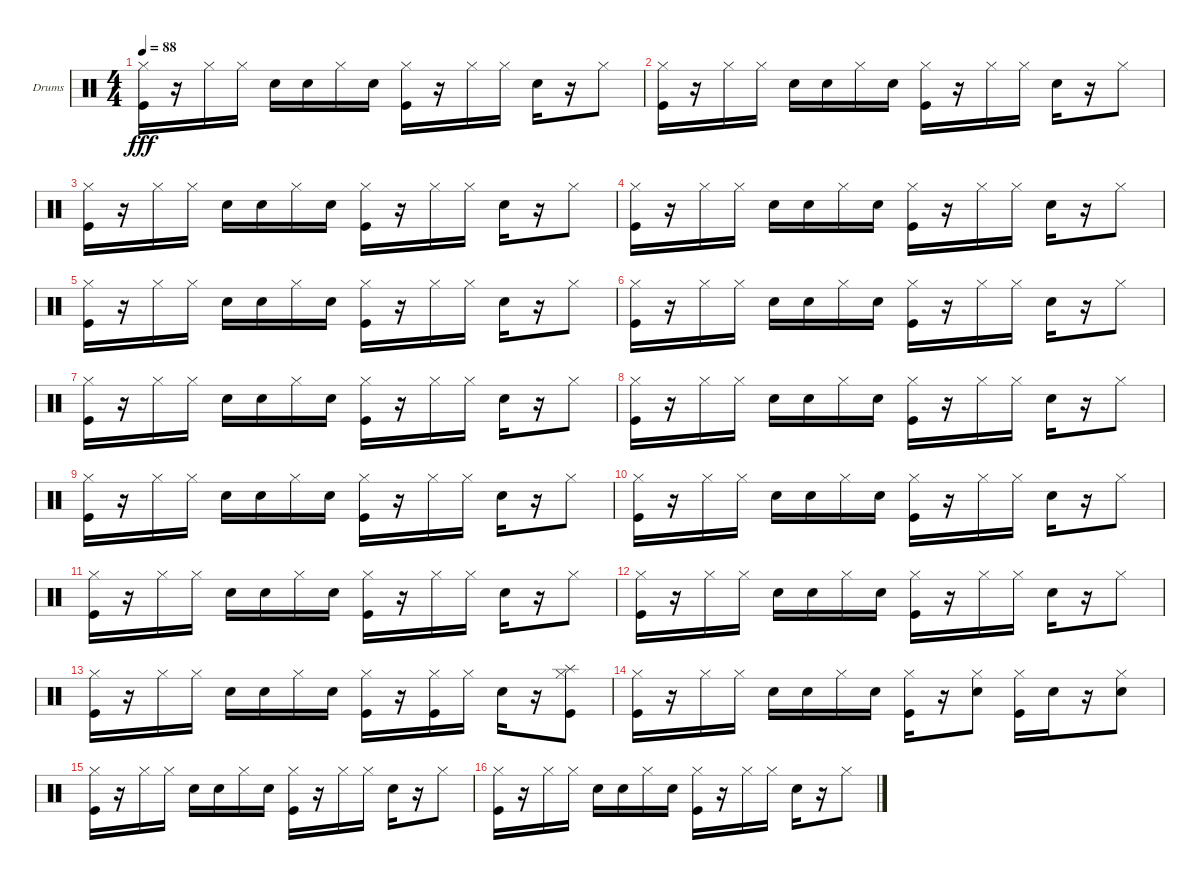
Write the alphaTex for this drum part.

\defaultSystemsLayout 4
\bracketExtendMode groupsimilarinstruments
\firstSystemTrackNameOrientation horizontal
\otherSystemsTrackNameOrientation horizontal
\track ("Drumkit" "Drums") {instrument percussion}
\staff {score}
\articulation defaults
\ts (4 4)
\tempo 88
\clef neutral
\ks c
("Hi-Hat (closed)" "Kick (hit)").16{dy fff} r.16 "Hi-Hat (closed)".16 "Hi-Hat (closed)".16 "Snare (hit) 2".16 "Snare (hit) 2".16 "Hi-Hat (closed)".16 "Snare (hit) 2".16 ("Hi-Hat (closed)" "Kick (hit)").16 r.16 "Hi-Hat (closed)".16 "Hi-Hat (closed)".16 "Snare (hit) 2".16 r.16 "Hi-Hat (closed)".8 |
("Hi-Hat (closed)" "Kick (hit)").16 r.16 "Hi-Hat (closed)".16 "Hi-Hat (closed)".16 "Snare (hit) 2".16 "Snare (hit) 2".16 "Hi-Hat (closed)".16 "Snare (hit) 2".16 ("Hi-Hat (closed)" "Kick (hit)").16 r.16 "Hi-Hat (closed)".16 "Hi-Hat (closed)".16 "Snare (hit) 2".16 r.16 "Hi-Hat (closed)".8 |
("Hi-Hat (closed)" "Kick (hit)").16 r.16 "Hi-Hat (closed)".16 "Hi-Hat (closed)".16 "Snare (hit) 2".16 "Snare (hit) 2".16 "Hi-Hat (closed)".16 "Snare (hit) 2".16 ("Hi-Hat (closed)" "Kick (hit)").16 r.16 "Hi-Hat (closed)".16 "Hi-Hat (closed)".16 "Snare (hit) 2".16 r.16 "Hi-Hat (closed)".8 |
("Hi-Hat (closed)" "Kick (hit)").16 r.16 "Hi-Hat (closed)".16 "Hi-Hat (closed)".16 "Snare (hit) 2".16 "Snare (hit) 2".16 "Hi-Hat (closed)".16 "Snare (hit) 2".16 ("Hi-Hat (closed)" "Kick (hit)").16 r.16 "Hi-Hat (closed)".16 "Hi-Hat (closed)".16 "Snare (hit) 2".16 r.16 "Hi-Hat (closed)".8 |
("Hi-Hat (closed)" "Kick (hit)").16 r.16 "Hi-Hat (closed)".16 "Hi-Hat (closed)".16 "Snare (hit) 2".16 "Snare (hit) 2".16 "Hi-Hat (closed)".16 "Snare (hit) 2".16 ("Hi-Hat (closed)" "Kick (hit)").16 r.16 "Hi-Hat (closed)".16 "Hi-Hat (closed)".16 "Snare (hit) 2".16 r.16 "Hi-Hat (closed)".8 |
("Hi-Hat (closed)" "Kick (hit)").16 r.16 "Hi-Hat (closed)".16 "Hi-Hat (closed)".16 "Snare (hit) 2".16 "Snare (hit) 2".16 "Hi-Hat (closed)".16 "Snare (hit) 2".16 ("Hi-Hat (closed)" "Kick (hit)").16 r.16 "Hi-Hat (closed)".16 "Hi-Hat (closed)".16 "Snare (hit) 2".16 r.16 "Hi-Hat (closed)".8 |
("Hi-Hat (closed)" "Kick (hit)").16 r.16 "Hi-Hat (closed)".16 "Hi-Hat (closed)".16 "Snare (hit) 2".16 "Snare (hit) 2".16 "Hi-Hat (closed)".16 "Snare (hit) 2".16 ("Hi-Hat (closed)" "Kick (hit)").16 r.16 "Hi-Hat (closed)".16 "Hi-Hat (closed)".16 "Snare (hit) 2".16 r.16 "Hi-Hat (closed)".8 |
("Hi-Hat (closed)" "Kick (hit)").16 r.16 "Hi-Hat (closed)".16 "Hi-Hat (closed)".16 "Snare (hit) 2".16 "Snare (hit) 2".16 "Hi-Hat (closed)".16 "Snare (hit) 2".16 ("Hi-Hat (closed)" "Kick (hit)").16 r.16 "Hi-Hat (closed)".16 "Hi-Hat (closed)".16 "Snare (hit) 2".16 r.16 "Hi-Hat (closed)".8 |
("Hi-Hat (closed)" "Kick (hit)").16 r.16 "Hi-Hat (closed)".16 "Hi-Hat (closed)".16 "Snare (hit) 2".16 "Snare (hit) 2".16 "Hi-Hat (closed)".16 "Snare (hit) 2".16 ("Hi-Hat (closed)" "Kick (hit)").16 r.16 "Hi-Hat (closed)".16 "Hi-Hat (closed)".16 "Snare (hit) 2".16 r.16 "Hi-Hat (closed)".8 |
("Hi-Hat (closed)" "Kick (hit)").16 r.16 "Hi-Hat (closed)".16 "Hi-Hat (closed)".16 "Snare (hit) 2".16 "Snare (hit) 2".16 "Hi-Hat (closed)".16 "Snare (hit) 2".16 ("Hi-Hat (closed)" "Kick (hit)").16 r.16 "Hi-Hat (closed)".16 "Hi-Hat (closed)".16 "Snare (hit) 2".16 r.16 "Hi-Hat (closed)".8 |
("Hi-Hat (closed)" "Kick (hit)").16 r.16 "Hi-Hat (closed)".16 "Hi-Hat (closed)".16 "Snare (hit) 2".16 "Snare (hit) 2".16 "Hi-Hat (closed)".16 "Snare (hit) 2".16 ("Hi-Hat (closed)" "Kick (hit)").16 r.16 "Hi-Hat (closed)".16 "Hi-Hat (closed)".16 "Snare (hit) 2".16 r.16 "Hi-Hat (closed)".8 |
("Hi-Hat (closed)" "Kick (hit)").16 r.16 "Hi-Hat (closed)".16 "Hi-Hat (closed)".16 "Snare (hit) 2".16 "Snare (hit) 2".16 "Hi-Hat (closed)".16 "Snare (hit) 2".16 ("Hi-Hat (closed)" "Kick (hit)").16 r.16 "Hi-Hat (closed)".16 "Hi-Hat (closed)".16 "Snare (hit) 2".16 r.16 "Hi-Hat (closed)".8 |
("Hi-Hat (closed)" "Kick (hit)").16 r.16 "Hi-Hat (closed)".16 "Hi-Hat (closed)".16 "Snare (hit) 2".16 "Snare (hit) 2".16 "Hi-Hat (closed)".16 "Snare (hit) 2".16 ("Hi-Hat (closed)" "Kick (hit)").16 r.16 ("Hi-Hat (closed)" "Kick (hit)").16 "Hi-Hat (closed)".16 "Snare (hit) 2".16 r.16 ("Hi-Hat (closed)" "Kick (hit)" "Splash (hit)").8 |
("Hi-Hat (closed)" "Kick (hit)").16 r.16 "Hi-Hat (closed)".16 "Hi-Hat (closed)".16 "Snare (hit) 2".16 "Snare (hit) 2".16 "Hi-Hat (closed)".16 "Snare (hit) 2".16 ("Hi-Hat (closed)" "Kick (hit)").16 r.16 ("Hi-Hat (closed)" "Snare (hit) 2").8 ("Hi-Hat (closed)" "Kick (hit)").16 "Snare (hit) 2".16 r.16 ("Hi-Hat (closed)" "Snare (hit) 2").8 |
("Hi-Hat (closed)" "Kick (hit)").16 r.16 "Hi-Hat (closed)".16 "Hi-Hat (closed)".16 "Snare (hit) 2".16 "Snare (hit) 2".16 "Hi-Hat (closed)".16 "Snare (hit) 2".16 ("Hi-Hat (closed)" "Kick (hit)").16 r.16 "Hi-Hat (closed)".16 "Hi-Hat (closed)".16 "Snare (hit) 2".16 r.16 "Hi-Hat (closed)".8 |
("Hi-Hat (closed)" "Kick (hit)").16 r.16 "Hi-Hat (closed)".16 "Hi-Hat (closed)".16 "Snare (hit) 2".16 "Snare (hit) 2".16 "Hi-Hat (closed)".16 "Snare (hit) 2".16 ("Hi-Hat (closed)" "Kick (hit)").16 r.16 "Hi-Hat (closed)".16 "Hi-Hat (closed)".16 "Snare (hit) 2".16 r.16 "Hi-Hat (closed)".8
